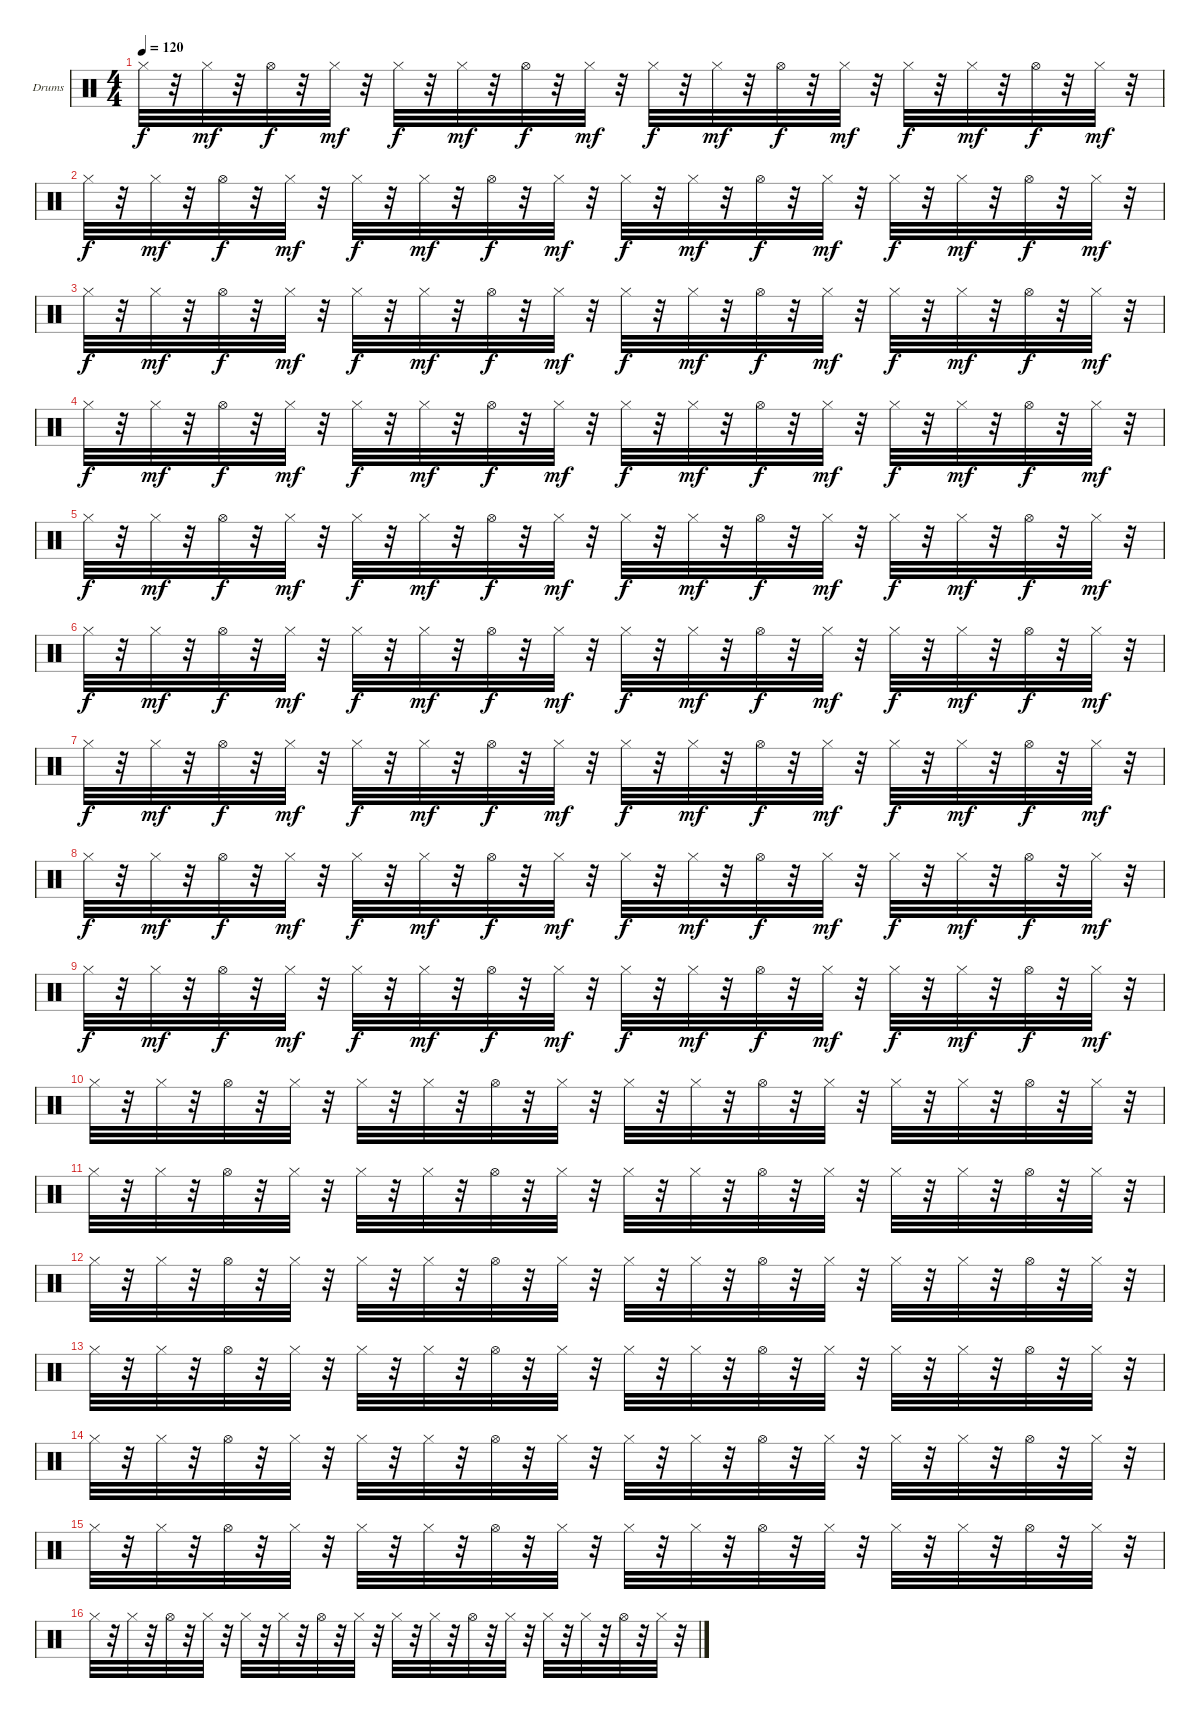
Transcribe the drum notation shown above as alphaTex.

\defaultSystemsLayout 4
\bracketExtendMode nobrackets
\firstSystemTrackNameOrientation horizontal
\otherSystemsTrackNameOrientation horizontal
\track ("Drumkit" "Drums") {instrument percussion}
\staff {score}
\articulation defaults
\ts (4 4)
\tempo 120
\clef neutral
\ks c "Hi-Hat (closed)".32{dy f}
r.32 "Hi-Hat (closed)".32{dy mf} r.32 "Hi-Hat (open)".32{dy f} r.32 "Hi-Hat (closed)".32{dy mf} r.32 "Hi-Hat (closed)".32{dy f} r.32 "Hi-Hat (closed)".32{dy mf} r.32 "Hi-Hat (open)".32{dy f} r.32 "Hi-Hat (closed)".32{dy mf} r.32 "Hi-Hat (closed)".32{dy f} r.32 "Hi-Hat (closed)".32{dy mf} r.32 "Hi-Hat (open)".32{dy f} r.32 "Hi-Hat (closed)".32{dy mf} r.32 "Hi-Hat (closed)".32{dy f} r.32 "Hi-Hat (closed)".32{dy mf} r.32 "Hi-Hat (open)".32{dy f} r.32 "Hi-Hat (closed)".32{dy mf} r.32 |
"Hi-Hat (closed)".32{dy f} r.32 "Hi-Hat (closed)".32{dy mf} r.32 "Hi-Hat (open)".32{dy f} r.32 "Hi-Hat (closed)".32{dy mf} r.32 "Hi-Hat (closed)".32{dy f} r.32 "Hi-Hat (closed)".32{dy mf} r.32 "Hi-Hat (open)".32{dy f} r.32 "Hi-Hat (closed)".32{dy mf} r.32 "Hi-Hat (closed)".32{dy f} r.32 "Hi-Hat (closed)".32{dy mf} r.32 "Hi-Hat (open)".32{dy f} r.32 "Hi-Hat (closed)".32{dy mf} r.32 "Hi-Hat (closed)".32{dy f} r.32 "Hi-Hat (closed)".32{dy mf} r.32 "Hi-Hat (open)".32{dy f} r.32 "Hi-Hat (closed)".32{dy mf} r.32 |
"Hi-Hat (closed)".32{dy f} r.32 "Hi-Hat (closed)".32{dy mf} r.32 "Hi-Hat (open)".32{dy f} r.32 "Hi-Hat (closed)".32{dy mf} r.32 "Hi-Hat (closed)".32{dy f} r.32 "Hi-Hat (closed)".32{dy mf} r.32 "Hi-Hat (open)".32{dy f} r.32 "Hi-Hat (closed)".32{dy mf} r.32 "Hi-Hat (closed)".32{dy f} r.32 "Hi-Hat (closed)".32{dy mf} r.32 "Hi-Hat (open)".32{dy f} r.32 "Hi-Hat (closed)".32{dy mf} r.32 "Hi-Hat (closed)".32{dy f} r.32 "Hi-Hat (closed)".32{dy mf} r.32 "Hi-Hat (open)".32{dy f} r.32 "Hi-Hat (closed)".32{dy mf} r.32 |
"Hi-Hat (closed)".32{dy f} r.32 "Hi-Hat (closed)".32{dy mf} r.32 "Hi-Hat (open)".32{dy f} r.32 "Hi-Hat (closed)".32{dy mf} r.32 "Hi-Hat (closed)".32{dy f} r.32 "Hi-Hat (closed)".32{dy mf} r.32 "Hi-Hat (open)".32{dy f} r.32 "Hi-Hat (closed)".32{dy mf} r.32 "Hi-Hat (closed)".32{dy f} r.32 "Hi-Hat (closed)".32{dy mf} r.32 "Hi-Hat (open)".32{dy f} r.32 "Hi-Hat (closed)".32{dy mf} r.32 "Hi-Hat (closed)".32{dy f} r.32 "Hi-Hat (closed)".32{dy mf} r.32 "Hi-Hat (open)".32{dy f} r.32 "Hi-Hat (closed)".32{dy mf} r.32 |
"Hi-Hat (closed)".32{dy f} r.32 "Hi-Hat (closed)".32{dy mf} r.32 "Hi-Hat (open)".32{dy f} r.32 "Hi-Hat (closed)".32{dy mf} r.32 "Hi-Hat (closed)".32{dy f} r.32 "Hi-Hat (closed)".32{dy mf} r.32 "Hi-Hat (open)".32{dy f} r.32 "Hi-Hat (closed)".32{dy mf} r.32 "Hi-Hat (closed)".32{dy f} r.32 "Hi-Hat (closed)".32{dy mf} r.32 "Hi-Hat (open)".32{dy f} r.32 "Hi-Hat (closed)".32{dy mf} r.32 "Hi-Hat (closed)".32{dy f} r.32 "Hi-Hat (closed)".32{dy mf} r.32 "Hi-Hat (open)".32{dy f} r.32 "Hi-Hat (closed)".32{dy mf} r.32 |
"Hi-Hat (closed)".32{dy f} r.32 "Hi-Hat (closed)".32{dy mf} r.32 "Hi-Hat (open)".32{dy f} r.32 "Hi-Hat (closed)".32{dy mf} r.32 "Hi-Hat (closed)".32{dy f} r.32 "Hi-Hat (closed)".32{dy mf} r.32 "Hi-Hat (open)".32{dy f} r.32 "Hi-Hat (closed)".32{dy mf} r.32 "Hi-Hat (closed)".32{dy f} r.32 "Hi-Hat (closed)".32{dy mf} r.32 "Hi-Hat (open)".32{dy f} r.32 "Hi-Hat (closed)".32{dy mf} r.32 "Hi-Hat (closed)".32{dy f} r.32 "Hi-Hat (closed)".32{dy mf} r.32 "Hi-Hat (open)".32{dy f} r.32 "Hi-Hat (closed)".32{dy mf} r.32 |
"Hi-Hat (closed)".32{dy f} r.32 "Hi-Hat (closed)".32{dy mf} r.32 "Hi-Hat (open)".32{dy f} r.32 "Hi-Hat (closed)".32{dy mf} r.32 "Hi-Hat (closed)".32{dy f} r.32 "Hi-Hat (closed)".32{dy mf} r.32 "Hi-Hat (open)".32{dy f} r.32 "Hi-Hat (closed)".32{dy mf} r.32 "Hi-Hat (closed)".32{dy f} r.32 "Hi-Hat (closed)".32{dy mf} r.32 "Hi-Hat (open)".32{dy f} r.32 "Hi-Hat (closed)".32{dy mf} r.32 "Hi-Hat (closed)".32{dy f} r.32 "Hi-Hat (closed)".32{dy mf} r.32 "Hi-Hat (open)".32{dy f} r.32 "Hi-Hat (closed)".32{dy mf} r.32 |
"Hi-Hat (closed)".32{dy f} r.32 "Hi-Hat (closed)".32{dy mf} r.32 "Hi-Hat (open)".32{dy f} r.32 "Hi-Hat (closed)".32{dy mf} r.32 "Hi-Hat (closed)".32{dy f} r.32 "Hi-Hat (closed)".32{dy mf} r.32 "Hi-Hat (open)".32{dy f} r.32 "Hi-Hat (closed)".32{dy mf} r.32 "Hi-Hat (closed)".32{dy f} r.32 "Hi-Hat (closed)".32{dy mf} r.32 "Hi-Hat (open)".32{dy f} r.32 "Hi-Hat (closed)".32{dy mf} r.32 "Hi-Hat (closed)".32{dy f} r.32 "Hi-Hat (closed)".32{dy mf} r.32 "Hi-Hat (open)".32{dy f} r.32 "Hi-Hat (closed)".32{dy mf} r.32 |
"Hi-Hat (closed)".32{dy f} r.32 "Hi-Hat (closed)".32{dy mf} r.32 "Hi-Hat (open)".32{dy f} r.32 "Hi-Hat (closed)".32{dy mf} r.32 "Hi-Hat (closed)".32{dy f} r.32 "Hi-Hat (closed)".32{dy mf} r.32 "Hi-Hat (open)".32{dy f} r.32 "Hi-Hat (closed)".32{dy mf} r.32 "Hi-Hat (closed)".32{dy f} r.32 "Hi-Hat (closed)".32{dy mf} r.32 "Hi-Hat (open)".32{dy f} r.32 "Hi-Hat (closed)".32{dy mf} r.32 "Hi-Hat (closed)".32{dy f} r.32 "Hi-Hat (closed)".32{dy mf} r.32 "Hi-Hat (open)".32{dy f} r.32 "Hi-Hat (closed)".32{dy mf} r.32 |
"Hi-Hat (closed)".32 r.32 "Hi-Hat (closed)".32 r.32 "Hi-Hat (open)".32 r.32 "Hi-Hat (closed)".32 r.32 "Hi-Hat (closed)".32 r.32 "Hi-Hat (closed)".32 r.32 "Hi-Hat (open)".32 r.32 "Hi-Hat (closed)".32 r.32 "Hi-Hat (closed)".32 r.32 "Hi-Hat (closed)".32 r.32 "Hi-Hat (open)".32 r.32 "Hi-Hat (closed)".32 r.32 "Hi-Hat (closed)".32 r.32 "Hi-Hat (closed)".32 r.32 "Hi-Hat (open)".32 r.32 "Hi-Hat (closed)".32 r.32 |
"Hi-Hat (closed)".32 r.32 "Hi-Hat (closed)".32 r.32 "Hi-Hat (open)".32 r.32 "Hi-Hat (closed)".32 r.32 "Hi-Hat (closed)".32 r.32 "Hi-Hat (closed)".32 r.32 "Hi-Hat (open)".32 r.32 "Hi-Hat (closed)".32 r.32 "Hi-Hat (closed)".32 r.32 "Hi-Hat (closed)".32 r.32 "Hi-Hat (open)".32 r.32 "Hi-Hat (closed)".32 r.32 "Hi-Hat (closed)".32 r.32 "Hi-Hat (closed)".32 r.32 "Hi-Hat (open)".32 r.32 "Hi-Hat (closed)".32 r.32 |
"Hi-Hat (closed)".32 r.32 "Hi-Hat (closed)".32 r.32 "Hi-Hat (open)".32 r.32 "Hi-Hat (closed)".32 r.32 "Hi-Hat (closed)".32 r.32 "Hi-Hat (closed)".32 r.32 "Hi-Hat (open)".32 r.32 "Hi-Hat (closed)".32 r.32 "Hi-Hat (closed)".32 r.32 "Hi-Hat (closed)".32 r.32 "Hi-Hat (open)".32 r.32 "Hi-Hat (closed)".32 r.32 "Hi-Hat (closed)".32 r.32 "Hi-Hat (closed)".32 r.32 "Hi-Hat (open)".32 r.32 "Hi-Hat (closed)".32 r.32 |
"Hi-Hat (closed)".32 r.32 "Hi-Hat (closed)".32 r.32 "Hi-Hat (open)".32 r.32 "Hi-Hat (closed)".32 r.32 "Hi-Hat (closed)".32 r.32 "Hi-Hat (closed)".32 r.32 "Hi-Hat (open)".32 r.32 "Hi-Hat (closed)".32 r.32 "Hi-Hat (closed)".32 r.32 "Hi-Hat (closed)".32 r.32 "Hi-Hat (open)".32 r.32 "Hi-Hat (closed)".32 r.32 "Hi-Hat (closed)".32 r.32 "Hi-Hat (closed)".32 r.32 "Hi-Hat (open)".32 r.32 "Hi-Hat (closed)".32 r.32 |
"Hi-Hat (closed)".32 r.32 "Hi-Hat (closed)".32 r.32 "Hi-Hat (open)".32 r.32 "Hi-Hat (closed)".32 r.32 "Hi-Hat (closed)".32 r.32 "Hi-Hat (closed)".32 r.32 "Hi-Hat (open)".32 r.32 "Hi-Hat (closed)".32 r.32 "Hi-Hat (closed)".32 r.32 "Hi-Hat (closed)".32 r.32 "Hi-Hat (open)".32 r.32 "Hi-Hat (closed)".32 r.32 "Hi-Hat (closed)".32 r.32 "Hi-Hat (closed)".32 r.32 "Hi-Hat (open)".32 r.32 "Hi-Hat (closed)".32 r.32 |
"Hi-Hat (closed)".32 r.32 "Hi-Hat (closed)".32 r.32 "Hi-Hat (open)".32 r.32 "Hi-Hat (closed)".32 r.32 "Hi-Hat (closed)".32 r.32 "Hi-Hat (closed)".32 r.32 "Hi-Hat (open)".32 r.32 "Hi-Hat (closed)".32 r.32 "Hi-Hat (closed)".32 r.32 "Hi-Hat (closed)".32 r.32 "Hi-Hat (open)".32 r.32 "Hi-Hat (closed)".32 r.32 "Hi-Hat (closed)".32 r.32 "Hi-Hat (closed)".32 r.32 "Hi-Hat (open)".32 r.32 "Hi-Hat (closed)".32 r.32 |
"Hi-Hat (closed)".32 r.32 "Hi-Hat (closed)".32 r.32 "Hi-Hat (open)".32 r.32 "Hi-Hat (closed)".32 r.32 "Hi-Hat (closed)".32 r.32 "Hi-Hat (closed)".32 r.32 "Hi-Hat (open)".32 r.32 "Hi-Hat (closed)".32 r.32 "Hi-Hat (closed)".32 r.32 "Hi-Hat (closed)".32 r.32 "Hi-Hat (open)".32 r.32 "Hi-Hat (closed)".32 r.32 "Hi-Hat (closed)".32 r.32 "Hi-Hat (closed)".32 r.32 "Hi-Hat (open)".32 r.32 "Hi-Hat (closed)".32 r.32
